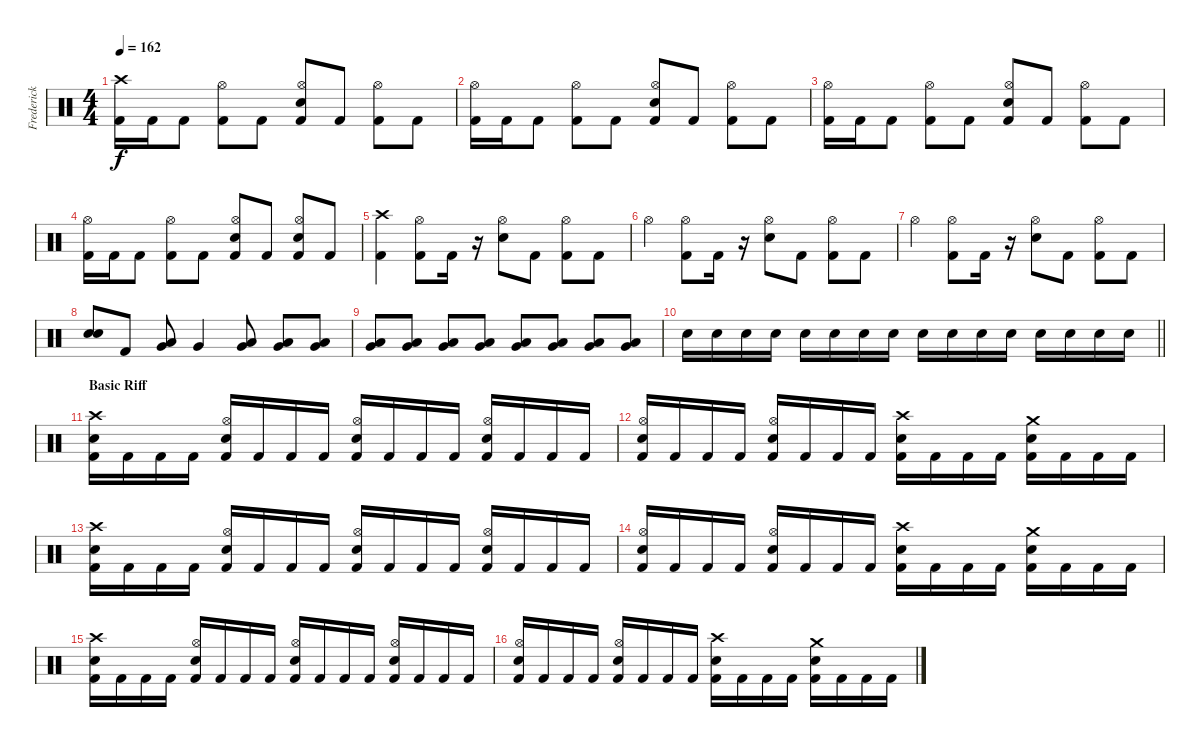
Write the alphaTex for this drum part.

\track ("Frederick Ehmke" "Frederick ") {instrument percussion}
\staff {score}
\articulation defaults
\ts (4 4)
\tempo 162
\clef neutral
\ks c
("Crash high (hit)" "Kick (hit) 2").16{dy f} "Kick (hit) 2".16 "Kick (hit) 2".8 ("Hi-Hat (open)" "Kick (hit) 2").8 "Kick (hit) 2".8 ("Electric Snare (hit)" "Hi-Hat (open)" "Kick (hit) 2").8 "Kick (hit) 2".8 ("Hi-Hat (open)" "Kick (hit) 2").8 "Kick (hit) 2".8 |
("Hi-Hat (open)" "Kick (hit) 2").16 "Kick (hit) 2".16 "Kick (hit) 2".8 ("Hi-Hat (open)" "Kick (hit) 2").8 "Kick (hit) 2".8 ("Electric Snare (hit)" "Hi-Hat (open)" "Kick (hit) 2").8 "Kick (hit) 2".8 ("Hi-Hat (open)" "Kick (hit) 2").8 "Kick (hit) 2".8 |
("Hi-Hat (open)" "Kick (hit) 2").16 "Kick (hit) 2".16 "Kick (hit) 2".8 ("Hi-Hat (open)" "Kick (hit) 2").8 "Kick (hit) 2".8 ("Electric Snare (hit)" "Hi-Hat (open)" "Kick (hit) 2").8 "Kick (hit) 2".8 ("Hi-Hat (open)" "Kick (hit) 2").8 "Kick (hit) 2".8 |
("Hi-Hat (open)" "Kick (hit) 2").16 "Kick (hit) 2".16 "Kick (hit) 2".8 ("Hi-Hat (open)" "Kick (hit) 2").8 "Kick (hit) 2".8 ("Electric Snare (hit)" "Hi-Hat (open)" "Kick (hit) 2").8 "Kick (hit) 2".8 ("Electric Snare (hit)" "Hi-Hat (open)" "Kick (hit) 2").8 "Kick (hit) 2".8 |
("Crash high (hit)" "Kick (hit) 2").4 ("Hi-Hat (open)" "Kick (hit) 2").8 "Kick (hit) 2".16 r.16 ("Electric Snare (hit)" "Hi-Hat (open)").8 "Kick (hit) 2".8 ("Hi-Hat (open)" "Kick (hit) 2").8 "Kick (hit) 2".8 |
"Hi-Hat (open)".4 ("Hi-Hat (open)" "Kick (hit) 2").8 "Kick (hit) 2".16 r.16 ("Electric Snare (hit)" "Hi-Hat (open)").8 "Kick (hit) 2".8 ("Hi-Hat (open)" "Kick (hit) 2").8 "Kick (hit) 2".8 |
"Hi-Hat (open)".4 ("Hi-Hat (open)" "Kick (hit) 2").8 "Kick (hit) 2".16 r.16 ("Electric Snare (hit)" "Hi-Hat (open)").8 "Kick (hit) 2".8 ("Hi-Hat (open)" "Kick (hit) 2").8 "Kick (hit) 2".8 |
("Electric Snare (hit)" "Electric Snare (hit)").8 "Kick (hit) 2".8 ("Very Low Tom (hit)" "Low Tom (hit)").8 "Very Low Tom (hit)".4 ("Very Low Tom (hit)" "Low Tom (hit)").8 ("Very Low Tom (hit)" "Low Tom (hit)").8 ("Very Low Tom (hit)" "Low Tom (hit)").8 |
("Low Floor Tom (hit)" "Very Low Tom (hit)").8 ("Low Floor Tom (hit)" "Very Low Tom (hit)").8 ("Low Floor Tom (hit)" "Very Low Tom (hit)").8 ("Low Floor Tom (hit)" "Very Low Tom (hit)").8 ("Low Floor Tom (hit)" "Very Low Tom (hit)").8 ("Low Floor Tom (hit)" "Very Low Tom (hit)").8 ("Low Floor Tom (hit)" "Very Low Tom (hit)").8 ("Low Floor Tom (hit)" "Very Low Tom (hit)").8 |
\barLineRight lightlight "Electric Snare (hit)".16 "Electric Snare (hit)".16 "Electric Snare (hit)".16 "Electric Snare (hit)".16 "Electric Snare (hit)".16 "Electric Snare (hit)".16 "Electric Snare (hit)".16 "Electric Snare (hit)".16 "Electric Snare (hit)".16 "Electric Snare (hit)".16 "Electric Snare (hit)".16 "Electric Snare (hit)".16 "Electric Snare (hit)".16 "Electric Snare (hit)".16 "Electric Snare (hit)".16 "Electric Snare (hit)".16
|
\section ("" "Basic Riff")
("Electric Snare (hit)" "Crash high (hit)" "Kick (hit) 2").16 "Kick (hit) 2".16 "Kick (hit) 2".16 "Kick (hit) 2".16 ("Electric Snare (hit)" "Hi-Hat (open)" "Kick (hit) 2").16 "Kick (hit) 2".16 "Kick (hit) 2".16 "Kick (hit) 2".16 ("Electric Snare (hit)" "Hi-Hat (open)" "Kick (hit) 2").16 "Kick (hit) 2".16 "Kick (hit) 2".16 "Kick (hit) 2".16 ("Electric Snare (hit)" "Hi-Hat (open)" "Kick (hit) 2").16 "Kick (hit) 2".16 "Kick (hit) 2".16 "Kick (hit) 2".16 |
("Electric Snare (hit)" "Hi-Hat (open)" "Kick (hit) 2").16 "Kick (hit) 2".16 "Kick (hit) 2".16 "Kick (hit) 2".16 ("Electric Snare (hit)" "Hi-Hat (open)" "Kick (hit) 2").16 "Kick (hit) 2".16 "Kick (hit) 2".16 "Kick (hit) 2".16 ("Electric Snare (hit)" "Crash high (hit)" "Kick (hit) 2").16 "Kick (hit) 2".16 "Kick (hit) 2".16 "Kick (hit) 2".16 ("Electric Snare (hit)" "Crash medium (hit)" "Kick (hit) 2").16 "Kick (hit) 2".16 "Kick (hit) 2".16 "Kick (hit) 2".16 |
("Electric Snare (hit)" "Crash high (hit)" "Kick (hit) 2").16 "Kick (hit) 2".16 "Kick (hit) 2".16 "Kick (hit) 2".16 ("Electric Snare (hit)" "Hi-Hat (open)" "Kick (hit) 2").16 "Kick (hit) 2".16 "Kick (hit) 2".16 "Kick (hit) 2".16 ("Electric Snare (hit)" "Hi-Hat (open)" "Kick (hit) 2").16 "Kick (hit) 2".16 "Kick (hit) 2".16 "Kick (hit) 2".16 ("Electric Snare (hit)" "Hi-Hat (open)" "Kick (hit) 2").16 "Kick (hit) 2".16 "Kick (hit) 2".16 "Kick (hit) 2".16 |
("Electric Snare (hit)" "Hi-Hat (open)" "Kick (hit) 2").16 "Kick (hit) 2".16 "Kick (hit) 2".16 "Kick (hit) 2".16 ("Electric Snare (hit)" "Hi-Hat (open)" "Kick (hit) 2").16 "Kick (hit) 2".16 "Kick (hit) 2".16 "Kick (hit) 2".16 ("Electric Snare (hit)" "Crash high (hit)" "Kick (hit) 2").16 "Kick (hit) 2".16 "Kick (hit) 2".16 "Kick (hit) 2".16 ("Electric Snare (hit)" "Crash medium (hit)" "Kick (hit) 2").16 "Kick (hit) 2".16 "Kick (hit) 2".16 "Kick (hit) 2".16 |
("Electric Snare (hit)" "Crash high (hit)" "Kick (hit) 2").16 "Kick (hit) 2".16 "Kick (hit) 2".16 "Kick (hit) 2".16 ("Electric Snare (hit)" "Hi-Hat (open)" "Kick (hit) 2").16 "Kick (hit) 2".16 "Kick (hit) 2".16 "Kick (hit) 2".16 ("Electric Snare (hit)" "Hi-Hat (open)" "Kick (hit) 2").16 "Kick (hit) 2".16 "Kick (hit) 2".16 "Kick (hit) 2".16 ("Electric Snare (hit)" "Hi-Hat (open)" "Kick (hit) 2").16 "Kick (hit) 2".16 "Kick (hit) 2".16 "Kick (hit) 2".16 |
("Electric Snare (hit)" "Hi-Hat (open)" "Kick (hit) 2").16 "Kick (hit) 2".16 "Kick (hit) 2".16 "Kick (hit) 2".16 ("Electric Snare (hit)" "Hi-Hat (open)" "Kick (hit) 2").16 "Kick (hit) 2".16 "Kick (hit) 2".16 "Kick (hit) 2".16 ("Electric Snare (hit)" "Crash high (hit)" "Kick (hit) 2").16 "Kick (hit) 2".16 "Kick (hit) 2".16 "Kick (hit) 2".16 ("Electric Snare (hit)" "Crash medium (hit)" "Kick (hit) 2").16 "Kick (hit) 2".16 "Kick (hit) 2".16 "Kick (hit) 2".16
